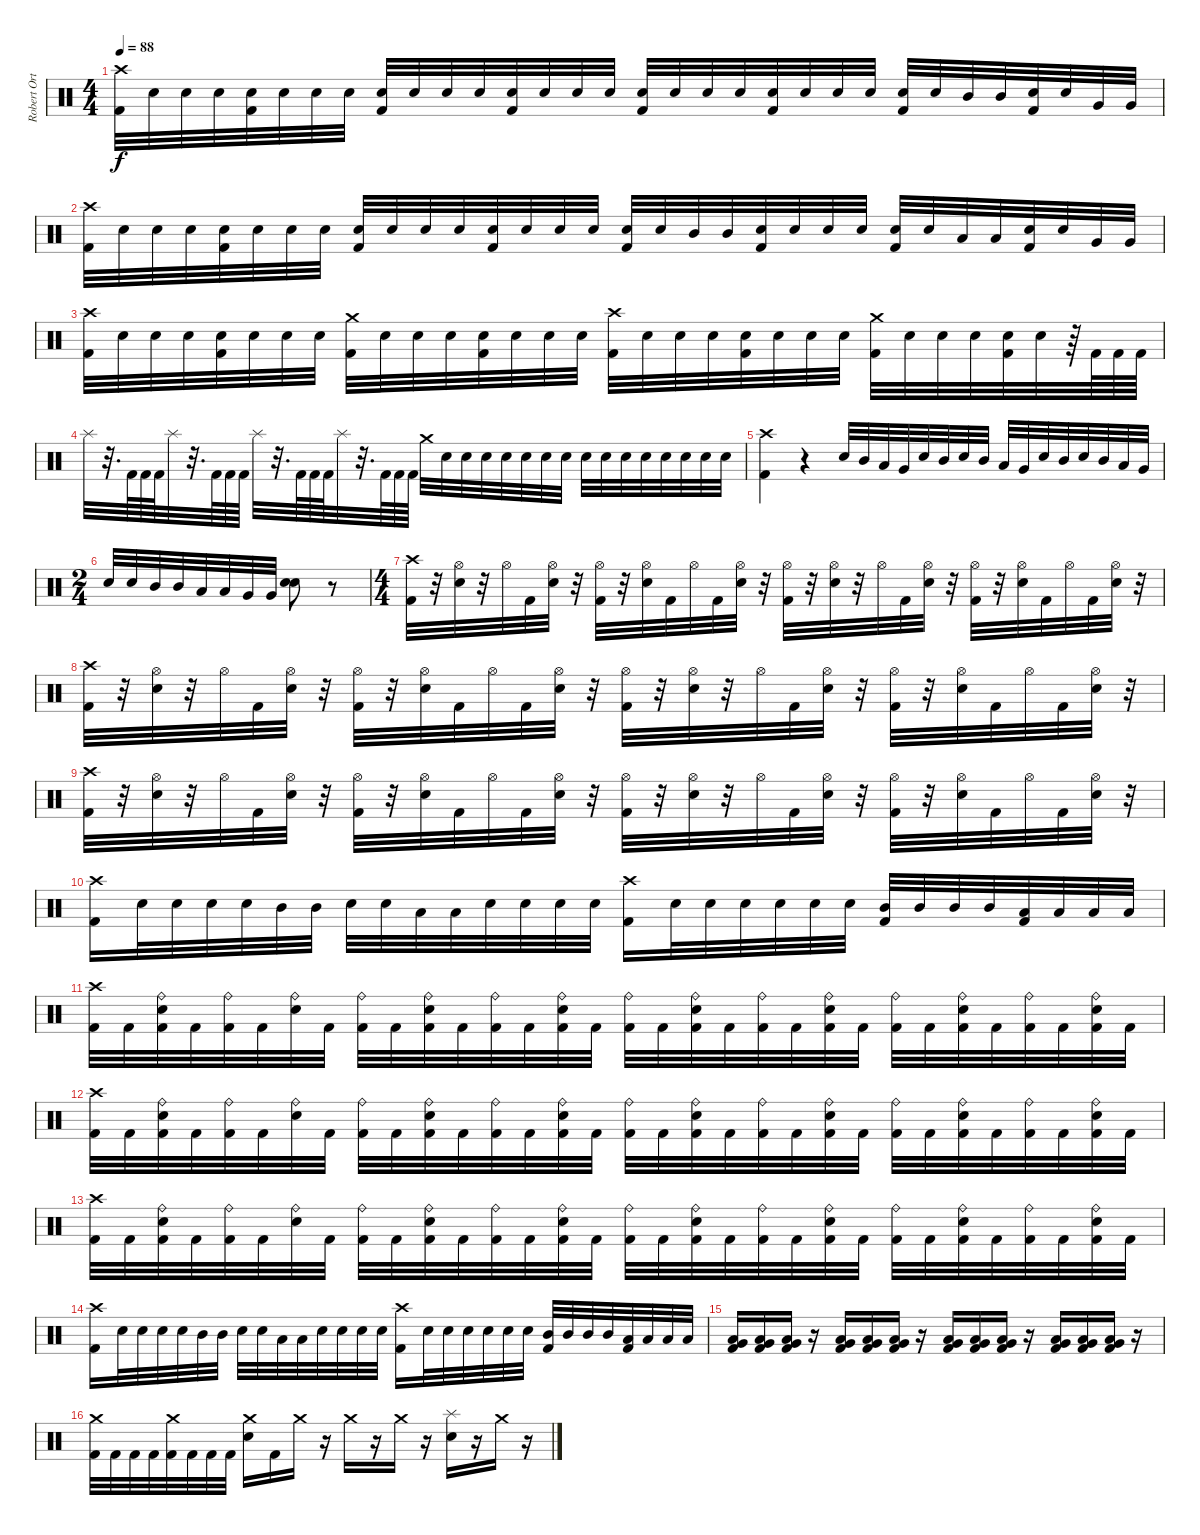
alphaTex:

\track ("Robert Ortiz" "Robert Ort") {instrument percussion}
\staff {score}
\articulation defaults
\ts (4 4)
\tempo 88
\clef neutral
\ks c
("Kick (hit) 2" "Crash high (hit)").32{dy f} "Electric Snare (hit)".32 "Electric Snare (hit)".32 "Electric Snare (hit)".32 ("Kick (hit) 2" "Electric Snare (hit)").32 "Electric Snare (hit)".32 "Electric Snare (hit)".32 "Electric Snare (hit)".32 ("Kick (hit) 2" "Electric Snare (hit)").32 "Electric Snare (hit)".32 "Electric Snare (hit)".32 "Electric Snare (hit)".32 ("Kick (hit) 2" "Electric Snare (hit)").32 "Electric Snare (hit)".32 "Electric Snare (hit)".32 "Electric Snare (hit)".32 ("Kick (hit) 2" "Electric Snare (hit)").32 "Electric Snare (hit)".32 "Electric Snare (hit)".32 "Electric Snare (hit)".32 ("Kick (hit) 2" "Electric Snare (hit)").32 "Electric Snare (hit)".32 "Electric Snare (hit)".32 "Electric Snare (hit)".32 ("Kick (hit) 2" "Electric Snare (hit)").32 "Electric Snare (hit)".32 "Mid Tom (hit)".32 "Mid Tom (hit)".32 ("Kick (hit) 2" "Electric Snare (hit)").32 "Electric Snare (hit)".32 "Very Low Tom (hit)".32 "Very Low Tom (hit)".32 |
("Kick (hit) 2" "Crash high (hit)").32 "Electric Snare (hit)".32 "Electric Snare (hit)".32 "Electric Snare (hit)".32 ("Kick (hit) 2" "Electric Snare (hit)").32 "Electric Snare (hit)".32 "Electric Snare (hit)".32 "Electric Snare (hit)".32 ("Kick (hit) 2" "Electric Snare (hit)").32 "Electric Snare (hit)".32 "Electric Snare (hit)".32 "Electric Snare (hit)".32 ("Kick (hit) 2" "Electric Snare (hit)").32 "Electric Snare (hit)".32 "Electric Snare (hit)".32 "Electric Snare (hit)".32 ("Kick (hit) 2" "Electric Snare (hit)").32 "Electric Snare (hit)".32 "Mid Tom (hit)".32 "Mid Tom (hit)".32 ("Kick (hit) 2" "Electric Snare (hit)").32 "Electric Snare (hit)".32 "Electric Snare (hit)".32 "Electric Snare (hit)".32 ("Kick (hit) 2" "Electric Snare (hit)").32 "Electric Snare (hit)".32 "Low Tom (hit)".32 "Low Tom (hit)".32 ("Kick (hit) 2" "Electric Snare (hit)").32 "Electric Snare (hit)".32 "Very Low Tom (hit)".32 "Very Low Tom (hit)".32 |
("Kick (hit) 2" "Crash high (hit)").32 "Electric Snare (hit)".32 "Electric Snare (hit)".32 "Electric Snare (hit)".32 ("Kick (hit) 2" "Electric Snare (hit)").32 "Electric Snare (hit)".32 "Electric Snare (hit)".32 "Electric Snare (hit)".32 ("Kick (hit) 2" "Crash medium (hit)").32 "Electric Snare (hit)".32 "Electric Snare (hit)".32 "Electric Snare (hit)".32 ("Kick (hit) 2" "Electric Snare (hit)").32 "Electric Snare (hit)".32 "Electric Snare (hit)".32 "Electric Snare (hit)".32 ("Kick (hit) 2" "Crash high (hit)").32 "Electric Snare (hit)".32 "Electric Snare (hit)".32 "Electric Snare (hit)".32 ("Kick (hit) 2" "Electric Snare (hit)").32 "Electric Snare (hit)".32 "Electric Snare (hit)".32 "Electric Snare (hit)".32 ("Kick (hit) 2" "Crash medium (hit)").32 "Electric Snare (hit)".32 "Electric Snare (hit)".32 "Electric Snare (hit)".32 ("Kick (hit) 2" "Electric Snare (hit)").32 "Electric Snare (hit)".32 r.64 "Kick (hit) 2".64 "Kick (hit) 2".64 "Kick (hit) 2".64 |
"Splash (hit)".32 r.32{d} "Kick (hit) 2".64 "Kick (hit) 2".64 "Kick (hit) 2".64 "Splash (hit)".32 r.32{d} "Kick (hit) 2".64 "Kick (hit) 2".64 "Kick (hit) 2".64 "Splash (hit)".32 r.32{d} "Kick (hit) 2".64 "Kick (hit) 2".64 "Kick (hit) 2".64 "Splash (hit)".32 r.32{d} "Kick (hit) 2".64 "Kick (hit) 2".64 "Kick (hit) 2".64 "Crash medium (hit)".32 "Electric Snare (hit)".32 "Electric Snare (hit)".32 "Electric Snare (hit)".32 "Electric Snare (hit)".32 "Electric Snare (hit)".32 "Electric Snare (hit)".32 "Electric Snare (hit)".32 "Electric Snare (hit)".32 "Electric Snare (hit)".32 "Electric Snare (hit)".32 "Electric Snare (hit)".32 "Electric Snare (hit)".32 "Electric Snare (hit)".32 "Electric Snare (hit)".32 "Electric Snare (hit)".32 |
("Kick (hit) 2" "Crash high (hit)").4 r.4 "Electric Snare (hit)".32 "Mid Tom (hit)".32 "Low Tom (hit)".32 "Very Low Tom (hit)".32 "Electric Snare (hit)".32 "Mid Tom (hit)".32 "Electric Snare (hit)".32 "Mid Tom (hit)".32 "Low Tom (hit)".32 "Very Low Tom (hit)".32 "Electric Snare (hit)".32 "Mid Tom (hit)".32 "Electric Snare (hit)".32 "Mid Tom (hit)".32 "Low Tom (hit)".32 "Very Low Tom (hit)".32 |
\ts (2 4)
"Electric Snare (hit)".32 "Electric Snare (hit)".32 "Mid Tom (hit)".32 "Mid Tom (hit)".32 "Low Tom (hit)".32 "Low Tom (hit)".32 "Very Low Tom (hit)".32 "Very Low Tom (hit)".32 ("Electric Snare (hit)" "Electric Snare (hit)").8 r.8 |
\ts (4 4)
("Kick (hit) 2" "Crash high (hit)").32 r.32 ("Electric Snare (hit)" "Hi-Hat (open)").32 r.32 "Hi-Hat (open)".32 "Kick (hit) 2".32 ("Electric Snare (hit)" "Hi-Hat (open)").32 r.32 ("Kick (hit) 2" "Hi-Hat (open)").32 r.32 ("Electric Snare (hit)" "Hi-Hat (open)").32 "Kick (hit) 2".32 "Hi-Hat (open)".32 "Kick (hit) 2".32 ("Electric Snare (hit)" "Hi-Hat (open)").32 r.32 ("Kick (hit) 2" "Hi-Hat (open)").32 r.32 ("Electric Snare (hit)" "Hi-Hat (open)").32 r.32 "Hi-Hat (open)".32 "Kick (hit) 2".32 ("Electric Snare (hit)" "Hi-Hat (open)").32 r.32 ("Kick (hit) 2" "Hi-Hat (open)").32 r.32 ("Electric Snare (hit)" "Hi-Hat (open)").32 "Kick (hit) 2".32 "Hi-Hat (open)".32 "Kick (hit) 2".32 ("Electric Snare (hit)" "Hi-Hat (open)").32 r.32 |
("Kick (hit) 2" "Crash high (hit)").32 r.32 ("Electric Snare (hit)" "Hi-Hat (open)").32 r.32 "Hi-Hat (open)".32 "Kick (hit) 2".32 ("Electric Snare (hit)" "Hi-Hat (open)").32 r.32 ("Kick (hit) 2" "Hi-Hat (open)").32 r.32 ("Electric Snare (hit)" "Hi-Hat (open)").32 "Kick (hit) 2".32 "Hi-Hat (open)".32 "Kick (hit) 2".32 ("Electric Snare (hit)" "Hi-Hat (open)").32 r.32 ("Kick (hit) 2" "Hi-Hat (open)").32 r.32 ("Electric Snare (hit)" "Hi-Hat (open)").32 r.32 "Hi-Hat (open)".32 "Kick (hit) 2".32 ("Electric Snare (hit)" "Hi-Hat (open)").32 r.32 ("Kick (hit) 2" "Hi-Hat (open)").32 r.32 ("Electric Snare (hit)" "Hi-Hat (open)").32 "Kick (hit) 2".32 "Hi-Hat (open)".32 "Kick (hit) 2".32 ("Electric Snare (hit)" "Hi-Hat (open)").32 r.32 |
("Kick (hit) 2" "Crash high (hit)").32 r.32 ("Electric Snare (hit)" "Hi-Hat (open)").32 r.32 "Hi-Hat (open)".32 "Kick (hit) 2".32 ("Electric Snare (hit)" "Hi-Hat (open)").32 r.32 ("Kick (hit) 2" "Hi-Hat (open)").32 r.32 ("Electric Snare (hit)" "Hi-Hat (open)").32 "Kick (hit) 2".32 "Hi-Hat (open)".32 "Kick (hit) 2".32 ("Electric Snare (hit)" "Hi-Hat (open)").32 r.32 ("Kick (hit) 2" "Hi-Hat (open)").32 r.32 ("Electric Snare (hit)" "Hi-Hat (open)").32 r.32 "Hi-Hat (open)".32 "Kick (hit) 2".32 ("Electric Snare (hit)" "Hi-Hat (open)").32 r.32 ("Kick (hit) 2" "Hi-Hat (open)").32 r.32 ("Electric Snare (hit)" "Hi-Hat (open)").32 "Kick (hit) 2".32 "Hi-Hat (open)".32 "Kick (hit) 2".32 ("Electric Snare (hit)" "Hi-Hat (open)").32 r.32 |
("Kick (hit) 2" "Crash high (hit)").16 "Electric Snare (hit)".32 "Electric Snare (hit)".32 "Electric Snare (hit)".32 "Electric Snare (hit)".32 "Mid Tom (hit)".32 "Mid Tom (hit)".32 "Electric Snare (hit)".32 "Electric Snare (hit)".32 "Low Tom (hit)".32 "Low Tom (hit)".32 "Electric Snare (hit)".32 "Electric Snare (hit)".32 "Electric Snare (hit)".32 "Electric Snare (hit)".32 ("Kick (hit) 2" "Crash high (hit)").16 "Electric Snare (hit)".32 "Electric Snare (hit)".32 "Electric Snare (hit)".32 "Electric Snare (hit)".32 "Electric Snare (hit)".32 "Electric Snare (hit)".32 ("Kick (hit) 2" "Mid Tom (hit)").32 "Mid Tom (hit)".32 "Mid Tom (hit)".32 "Mid Tom (hit)".32 ("Kick (hit) 2" "Low Tom (hit)").32 "Low Tom (hit)".32 "Low Tom (hit)".32 "Low Tom (hit)".32 |
("Kick (hit) 2" "Crash high (hit)").32 "Kick (hit) 2".32 ("Kick (hit) 2" "Electric Snare (hit)" "Ride (bell)").32 "Kick (hit) 2".32 ("Kick (hit) 2" "Ride (bell)").32 "Kick (hit) 2".32 ("Electric Snare (hit)" "Ride (bell)").32 "Kick (hit) 2".32 ("Kick (hit) 2" "Ride (bell)").32 "Kick (hit) 2".32 ("Kick (hit) 2" "Electric Snare (hit)" "Ride (bell)").32 "Kick (hit) 2".32 ("Kick (hit) 2" "Ride (bell)").32 "Kick (hit) 2".32 ("Kick (hit) 2" "Electric Snare (hit)" "Ride (bell)").32 "Kick (hit) 2".32 ("Kick (hit) 2" "Ride (bell)").32 "Kick (hit) 2".32 ("Kick (hit) 2" "Electric Snare (hit)" "Ride (bell)").32 "Kick (hit) 2".32 ("Kick (hit) 2" "Ride (bell)").32 "Kick (hit) 2".32 ("Kick (hit) 2" "Electric Snare (hit)" "Ride (bell)").32 "Kick (hit) 2".32 ("Kick (hit) 2" "Ride (bell)").32 "Kick (hit) 2".32 ("Kick (hit) 2" "Electric Snare (hit)" "Ride (bell)").32 "Kick (hit) 2".32 ("Kick (hit) 2" "Ride (bell)").32 "Kick (hit) 2".32 ("Kick (hit) 2" "Electric Snare (hit)" "Ride (bell)").32 "Kick (hit) 2".32 |
("Kick (hit) 2" "Crash high (hit)").32 "Kick (hit) 2".32 ("Kick (hit) 2" "Electric Snare (hit)" "Ride (bell)").32 "Kick (hit) 2".32 ("Kick (hit) 2" "Ride (bell)").32 "Kick (hit) 2".32 ("Electric Snare (hit)" "Ride (bell)").32 "Kick (hit) 2".32 ("Kick (hit) 2" "Ride (bell)").32 "Kick (hit) 2".32 ("Kick (hit) 2" "Electric Snare (hit)" "Ride (bell)").32 "Kick (hit) 2".32 ("Kick (hit) 2" "Ride (bell)").32 "Kick (hit) 2".32 ("Kick (hit) 2" "Electric Snare (hit)" "Ride (bell)").32 "Kick (hit) 2".32 ("Kick (hit) 2" "Ride (bell)").32 "Kick (hit) 2".32 ("Kick (hit) 2" "Electric Snare (hit)" "Ride (bell)").32 "Kick (hit) 2".32 ("Kick (hit) 2" "Ride (bell)").32 "Kick (hit) 2".32 ("Kick (hit) 2" "Electric Snare (hit)" "Ride (bell)").32 "Kick (hit) 2".32 ("Kick (hit) 2" "Ride (bell)").32 "Kick (hit) 2".32 ("Kick (hit) 2" "Electric Snare (hit)" "Ride (bell)").32 "Kick (hit) 2".32 ("Kick (hit) 2" "Ride (bell)").32 "Kick (hit) 2".32 ("Kick (hit) 2" "Electric Snare (hit)" "Ride (bell)").32 "Kick (hit) 2".32 |
("Kick (hit) 2" "Crash high (hit)").32 "Kick (hit) 2".32 ("Kick (hit) 2" "Electric Snare (hit)" "Ride (bell)").32 "Kick (hit) 2".32 ("Kick (hit) 2" "Ride (bell)").32 "Kick (hit) 2".32 ("Electric Snare (hit)" "Ride (bell)").32 "Kick (hit) 2".32 ("Kick (hit) 2" "Ride (bell)").32 "Kick (hit) 2".32 ("Kick (hit) 2" "Electric Snare (hit)" "Ride (bell)").32 "Kick (hit) 2".32 ("Kick (hit) 2" "Ride (bell)").32 "Kick (hit) 2".32 ("Kick (hit) 2" "Electric Snare (hit)" "Ride (bell)").32 "Kick (hit) 2".32 ("Kick (hit) 2" "Ride (bell)").32 "Kick (hit) 2".32 ("Kick (hit) 2" "Electric Snare (hit)" "Ride (bell)").32 "Kick (hit) 2".32 ("Kick (hit) 2" "Ride (bell)").32 "Kick (hit) 2".32 ("Kick (hit) 2" "Electric Snare (hit)" "Ride (bell)").32 "Kick (hit) 2".32 ("Kick (hit) 2" "Ride (bell)").32 "Kick (hit) 2".32 ("Kick (hit) 2" "Electric Snare (hit)" "Ride (bell)").32 "Kick (hit) 2".32 ("Kick (hit) 2" "Ride (bell)").32 "Kick (hit) 2".32 ("Kick (hit) 2" "Electric Snare (hit)" "Ride (bell)").32 "Kick (hit) 2".32 |
("Kick (hit) 2" "Crash high (hit)").16 "Electric Snare (hit)".32 "Electric Snare (hit)".32 "Electric Snare (hit)".32 "Electric Snare (hit)".32 "Mid Tom (hit)".32 "Mid Tom (hit)".32 "Electric Snare (hit)".32 "Electric Snare (hit)".32 "Low Tom (hit)".32 "Low Tom (hit)".32 "Electric Snare (hit)".32 "Electric Snare (hit)".32 "Electric Snare (hit)".32 "Electric Snare (hit)".32 ("Kick (hit) 2" "Crash high (hit)").16 "Electric Snare (hit)".32 "Electric Snare (hit)".32 "Electric Snare (hit)".32 "Electric Snare (hit)".32 "Electric Snare (hit)".32 "Electric Snare (hit)".32 ("Kick (hit) 2" "Mid Tom (hit)").32 "Mid Tom (hit)".32 "Mid Tom (hit)".32 "Mid Tom (hit)".32 ("Kick (hit) 2" "Low Tom (hit)").32 "Low Tom (hit)".32 "Low Tom (hit)".32 "Low Tom (hit)".32 |
("Kick (hit) 2" "Very Low Tom (hit)" "Low Tom (hit)").16 ("Kick (hit) 2" "Very Low Tom (hit)" "Low Tom (hit)").16 ("Kick (hit) 2" "Very Low Tom (hit)" "Low Tom (hit)").16 r.16 ("Kick (hit) 2" "Very Low Tom (hit)" "Low Tom (hit)").16 ("Kick (hit) 2" "Very Low Tom (hit)" "Low Tom (hit)").16 ("Kick (hit) 2" "Very Low Tom (hit)" "Low Tom (hit)").16 r.16 ("Kick (hit) 2" "Very Low Tom (hit)" "Low Tom (hit)").16 ("Kick (hit) 2" "Very Low Tom (hit)" "Low Tom (hit)").16 ("Kick (hit) 2" "Very Low Tom (hit)" "Low Tom (hit)").16 r.16 ("Kick (hit) 2" "Very Low Tom (hit)" "Low Tom (hit)").16 ("Kick (hit) 2" "Very Low Tom (hit)" "Low Tom (hit)").16 ("Kick (hit) 2" "Very Low Tom (hit)" "Low Tom (hit)").16 r.16 |
("Kick (hit) 2" "Crash medium (hit)").32 "Kick (hit) 2".32 "Kick (hit) 2".32 "Kick (hit) 2".32 ("Kick (hit) 2" "Crash medium (hit)").32 "Kick (hit) 2".32 "Kick (hit) 2".32 "Kick (hit) 2".32 ("Electric Snare (hit)" "Crash medium (hit)").16 "Kick (hit) 2".16 "Crash medium (hit)".16 r.16 "Crash medium (hit)".16 r.16 "Crash medium (hit)".16 r.16 ("Electric Snare (hit)" "Splash (hit)").16 r.16 "Crash medium (hit)".16 r.16
